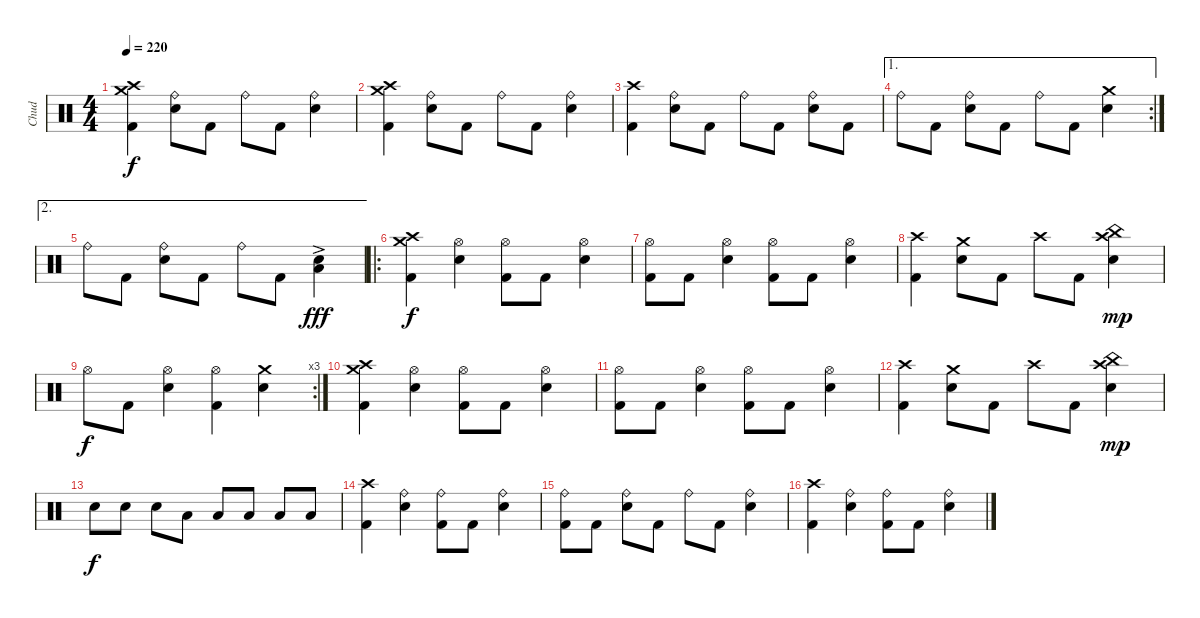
\track ("Chud" "Chud") {instrument percussion}
\staff {score}
\articulation defaults
\ts (4 4)
\tempo 220
\clef neutral
\ks c
("Crash high (hit)" "Crash medium (hit)" "Kick (hit) 2").4{dy f} ("Ride (bell)" "Electric Snare (hit)").8 "Kick (hit) 2".8 "Ride (bell)".8 "Kick (hit) 2".8 ("Ride (bell)" "Electric Snare (hit)").4 |
("Crash high (hit)" "Crash medium (hit)" "Kick (hit) 2").4 ("Ride (bell)" "Electric Snare (hit)").8 "Kick (hit) 2".8 "Ride (bell)".8 "Kick (hit) 2".8 ("Ride (bell)" "Electric Snare (hit)").4 |
("Crash high (hit)" "Kick (hit) 2").4 ("Ride (bell)" "Electric Snare (hit)").8 "Kick (hit) 2".8 "Ride (bell)".8 "Kick (hit) 2".8 ("Ride (bell)" "Electric Snare (hit)").8 "Kick (hit) 2".8 |
\ae 1
\rc 2 "Ride (bell)".8 "Kick (hit) 2".8
("Ride (bell)" "Electric Snare (hit)").8 "Kick (hit) 2".8 "Ride (bell)".8 "Kick (hit) 2".8 ("Crash medium (hit)" "Electric Snare (hit)").4 |
\ae 2 "Ride (bell)".8 "Kick (hit) 2".8
("Ride (bell)" "Electric Snare (hit)").8 "Kick (hit) 2".8 "Ride (bell)".8 "Kick (hit) 2".8 ("Electric Snare (hit)" "Low Floor Tom (hit)"{ac}).4{dy fff} |
\ro
("Crash high (hit)" "Crash medium (hit)" "Kick (hit) 2").4{dy f} ("Hi-Hat (open)" "Electric Snare (hit)").4 ("Hi-Hat (open)" "Kick (hit) 2").8 "Kick (hit) 2".8 ("Hi-Hat (open)" "Electric Snare (hit)").4 |
("Hi-Hat (open)" "Kick (hit) 2").8 "Kick (hit) 2".8 ("Hi-Hat (open)" "Electric Snare (hit)").4 ("Hi-Hat (open)" "Kick (hit) 2").8 "Kick (hit) 2".8 ("Hi-Hat (open)" "Electric Snare (hit)").4 |
("Crash high (hit)" "Kick (hit) 2").4 ("Crash medium (hit)" "Electric Snare (hit)").8 "Kick (hit) 2".8 "Crash high (hit)".8 "Kick (hit) 2".8 ("China (hit)" "Crash high (hit)" "Electric Snare (hit)").4{dy mp} |
\rc 3 "Hi-Hat (open)".8{dy f} "Kick (hit) 2".8
("Hi-Hat (open)" "Electric Snare (hit)").4 ("Hi-Hat (open)" "Kick (hit) 2").4 ("Crash medium (hit)" "Electric Snare (hit)").4 |
("Crash high (hit)" "Crash medium (hit)" "Kick (hit) 2").4 ("Hi-Hat (open)" "Electric Snare (hit)").4 ("Hi-Hat (open)" "Kick (hit) 2").8 "Kick (hit) 2".8 ("Hi-Hat (open)" "Electric Snare (hit)").4 |
("Hi-Hat (open)" "Kick (hit) 2").8 "Kick (hit) 2".8 ("Hi-Hat (open)" "Electric Snare (hit)").4 ("Hi-Hat (open)" "Kick (hit) 2").8 "Kick (hit) 2".8 ("Hi-Hat (open)" "Electric Snare (hit)").4 |
("Crash high (hit)" "Kick (hit) 2").4 ("Crash medium (hit)" "Electric Snare (hit)").8 "Kick (hit) 2".8 "Crash high (hit)".8 "Kick (hit) 2".8 ("China (hit)" "Crash high (hit)" "Electric Snare (hit)").4{dy mp} |
"Electric Snare (hit)".8{dy f} "Electric Snare (hit)".8 "Electric Snare (hit)".8 "Low Tom (hit)".8 "Low Tom (hit)".8 "Low Tom (hit)".8 "Low Tom (hit)".8 "Low Tom (hit)".8 |
("Crash high (hit)" "Kick (hit) 2").4 ("Ride (bell)" "Electric Snare (hit)").4 ("Ride (bell)" "Kick (hit) 2").8 "Kick (hit) 2".8 ("Ride (bell)" "Electric Snare (hit)").4 |
("Ride (bell)" "Kick (hit) 2").8 "Kick (hit) 2".8 ("Ride (bell)" "Electric Snare (hit)").8 "Kick (hit) 2".8 "Ride (bell)".8 "Kick (hit) 2".8 ("Ride (bell)" "Electric Snare (hit)").4 |
("Crash high (hit)" "Kick (hit) 2").4 ("Ride (bell)" "Electric Snare (hit)").4 ("Ride (bell)" "Kick (hit) 2").8 "Kick (hit) 2".8 ("Ride (bell)" "Electric Snare (hit)").4
